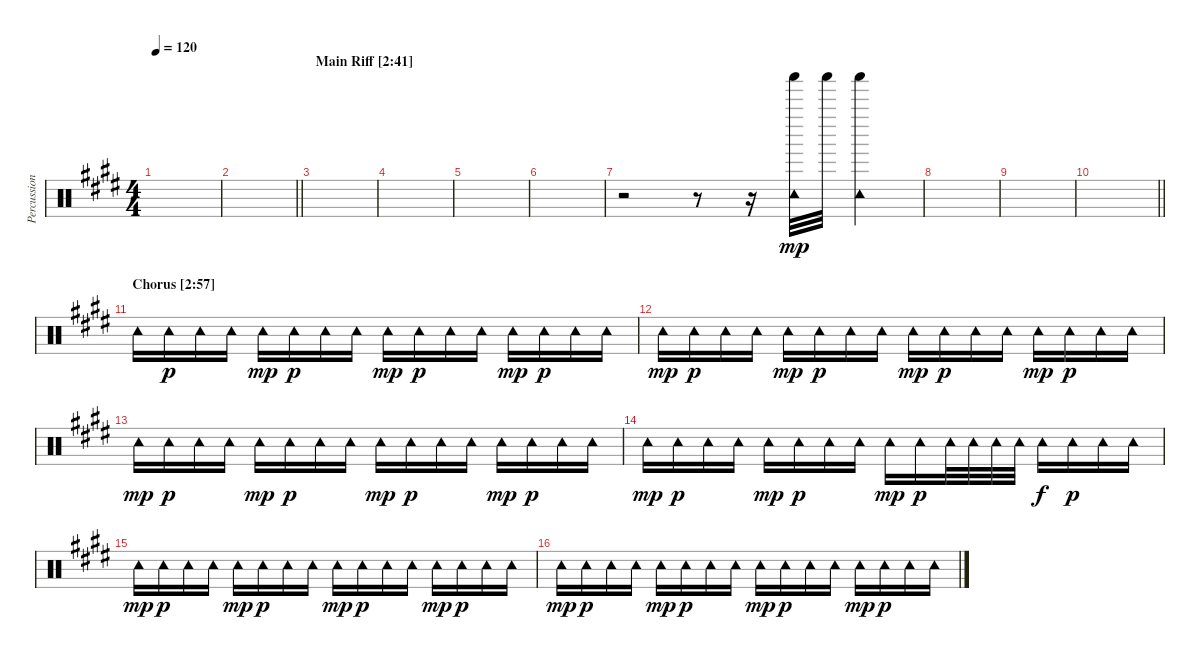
\track ("Percussion" "Percussion") {instrument percussion}
\staff {score}
\articulation defaults
\ts (4 4)
\tempo 120
\clef neutral
\ks c#minor
|
\barLineRight lightlight
|
\section ("" "Main Riff [2:41]")
|
|
|
|
r.2 r.8 r.16 ("Tambourine (hit)" "Shaker (hit)").32{dy mp} "Shaker (hit)".32 ("Tambourine (hit)" "Shaker (hit)").4 |
|
|
\barLineRight lightlight
|
\section ("" "Chorus [2:57]")
"Tambourine (hit)".16 "Tambourine (hit)".16{dy p} "Tambourine (hit)".16 "Tambourine (hit)".16 "Tambourine (hit)".16{dy mp} "Tambourine (hit)".16{dy p} "Tambourine (hit)".16 "Tambourine (hit)".16 "Tambourine (hit)".16{dy mp} "Tambourine (hit)".16{dy p} "Tambourine (hit)".16 "Tambourine (hit)".16 "Tambourine (hit)".16{dy mp} "Tambourine (hit)".16{dy p} "Tambourine (hit)".16 "Tambourine (hit)".16 |
"Tambourine (hit)".16{dy mp} "Tambourine (hit)".16{dy p} "Tambourine (hit)".16 "Tambourine (hit)".16 "Tambourine (hit)".16{dy mp} "Tambourine (hit)".16{dy p} "Tambourine (hit)".16 "Tambourine (hit)".16 "Tambourine (hit)".16{dy mp} "Tambourine (hit)".16{dy p} "Tambourine (hit)".16 "Tambourine (hit)".16 "Tambourine (hit)".16{dy mp} "Tambourine (hit)".16{dy p} "Tambourine (hit)".16 "Tambourine (hit)".16 |
"Tambourine (hit)".16{dy mp} "Tambourine (hit)".16{dy p} "Tambourine (hit)".16 "Tambourine (hit)".16 "Tambourine (hit)".16{dy mp} "Tambourine (hit)".16{dy p} "Tambourine (hit)".16 "Tambourine (hit)".16 "Tambourine (hit)".16{dy mp} "Tambourine (hit)".16{dy p} "Tambourine (hit)".16 "Tambourine (hit)".16 "Tambourine (hit)".16{dy mp} "Tambourine (hit)".16{dy p} "Tambourine (hit)".16 "Tambourine (hit)".16 |
"Tambourine (hit)".16{dy mp} "Tambourine (hit)".16{dy p} "Tambourine (hit)".16 "Tambourine (hit)".16 "Tambourine (hit)".16{dy mp} "Tambourine (hit)".16{dy p} "Tambourine (hit)".16 "Tambourine (hit)".16 "Tambourine (hit)".16{dy mp} "Tambourine (hit)".16{dy p} "Tambourine (hit)".32 "Tambourine (hit)".32 "Tambourine (hit)".32 "Tambourine (hit)".32 "Tambourine (hit)".16{dy f} "Tambourine (hit)".16{dy p} "Tambourine (hit)".16 "Tambourine (hit)".16 |
"Tambourine (hit)".16{dy mp} "Tambourine (hit)".16{dy p} "Tambourine (hit)".16 "Tambourine (hit)".16 "Tambourine (hit)".16{dy mp} "Tambourine (hit)".16{dy p} "Tambourine (hit)".16 "Tambourine (hit)".16 "Tambourine (hit)".16{dy mp} "Tambourine (hit)".16{dy p} "Tambourine (hit)".16 "Tambourine (hit)".16 "Tambourine (hit)".16{dy mp} "Tambourine (hit)".16{dy p} "Tambourine (hit)".16 "Tambourine (hit)".16 |
"Tambourine (hit)".16{dy mp} "Tambourine (hit)".16{dy p} "Tambourine (hit)".16 "Tambourine (hit)".16 "Tambourine (hit)".16{dy mp} "Tambourine (hit)".16{dy p} "Tambourine (hit)".16 "Tambourine (hit)".16 "Tambourine (hit)".16{dy mp} "Tambourine (hit)".16{dy p} "Tambourine (hit)".16 "Tambourine (hit)".16 "Tambourine (hit)".16{dy mp} "Tambourine (hit)".16{dy p} "Tambourine (hit)".16 "Tambourine (hit)".16
